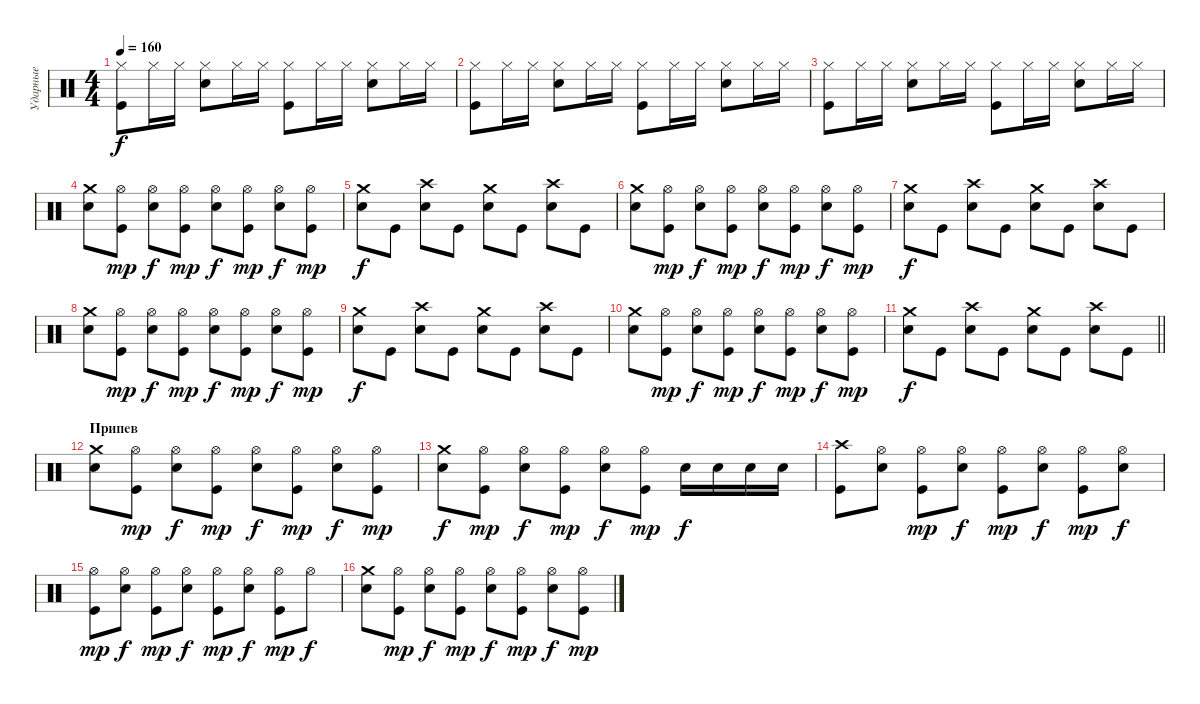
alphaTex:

\track ("Ударные" "Ударные") {instrument percussion}
\staff {score}
\articulation defaults
\ts (4 4)
\tempo 160
\clef neutral
\ks c
("Hi-Hat (closed)" "Kick (hit)").8{dy f} "Hi-Hat (closed)".16 "Hi-Hat (closed)".16 ("Hi-Hat (closed)" "Electric Snare (hit)").8 "Hi-Hat (closed)".16 "Hi-Hat (closed)".16 ("Hi-Hat (closed)" "Kick (hit)").8 "Hi-Hat (closed)".16 "Hi-Hat (closed)".16 ("Hi-Hat (closed)" "Electric Snare (hit)").8 "Hi-Hat (closed)".16 "Hi-Hat (closed)".16 |
("Hi-Hat (closed)" "Kick (hit)").8 "Hi-Hat (closed)".16 "Hi-Hat (closed)".16 ("Hi-Hat (closed)" "Electric Snare (hit)").8 "Hi-Hat (closed)".16 "Hi-Hat (closed)".16 ("Hi-Hat (closed)" "Kick (hit)").8 "Hi-Hat (closed)".16 "Hi-Hat (closed)".16 ("Hi-Hat (closed)" "Electric Snare (hit)").8 "Hi-Hat (closed)".16 "Hi-Hat (closed)".16 |
("Hi-Hat (closed)" "Kick (hit)").8 "Hi-Hat (closed)".16 "Hi-Hat (closed)".16 ("Hi-Hat (closed)" "Electric Snare (hit)").8 "Hi-Hat (closed)".16 "Hi-Hat (closed)".16 ("Hi-Hat (closed)" "Kick (hit)").8 "Hi-Hat (closed)".16 "Hi-Hat (closed)".16 ("Hi-Hat (closed)" "Electric Snare (hit)").8 "Hi-Hat (closed)".16 "Hi-Hat (closed)".16 |
("Crash medium (hit)" "Electric Snare (hit)").8 ("Hi-Hat (open)" "Kick (hit)").8{dy mp} ("Hi-Hat (open)" "Electric Snare (hit)").8{dy f} ("Hi-Hat (open)" "Kick (hit)").8{dy mp} ("Hi-Hat (open)" "Electric Snare (hit)").8{dy f} ("Hi-Hat (open)" "Kick (hit)").8{dy mp} ("Hi-Hat (open)" "Electric Snare (hit)").8{dy f} ("Hi-Hat (open)" "Kick (hit)").8{dy mp} |
("Crash medium (hit)" "Electric Snare (hit)").8{dy f} "Kick (hit)".8 ("Crash high (hit)" "Electric Snare (hit)").8 "Kick (hit)".8 ("Crash medium (hit)" "Electric Snare (hit)").8 "Kick (hit)".8 ("Crash high (hit)" "Electric Snare (hit)").8 "Kick (hit)".8 |
("Crash medium (hit)" "Electric Snare (hit)").8 ("Hi-Hat (open)" "Kick (hit)").8{dy mp} ("Hi-Hat (open)" "Electric Snare (hit)").8{dy f} ("Hi-Hat (open)" "Kick (hit)").8{dy mp} ("Hi-Hat (open)" "Electric Snare (hit)").8{dy f} ("Hi-Hat (open)" "Kick (hit)").8{dy mp} ("Hi-Hat (open)" "Electric Snare (hit)").8{dy f} ("Hi-Hat (open)" "Kick (hit)").8{dy mp} |
("Crash medium (hit)" "Electric Snare (hit)").8{dy f} "Kick (hit)".8 ("Crash high (hit)" "Electric Snare (hit)").8 "Kick (hit)".8 ("Crash medium (hit)" "Electric Snare (hit)").8 "Kick (hit)".8 ("Crash high (hit)" "Electric Snare (hit)").8 "Kick (hit)".8 |
("Crash medium (hit)" "Electric Snare (hit)").8 ("Hi-Hat (open)" "Kick (hit)").8{dy mp} ("Hi-Hat (open)" "Electric Snare (hit)").8{dy f} ("Hi-Hat (open)" "Kick (hit)").8{dy mp} ("Hi-Hat (open)" "Electric Snare (hit)").8{dy f} ("Hi-Hat (open)" "Kick (hit)").8{dy mp} ("Hi-Hat (open)" "Electric Snare (hit)").8{dy f} ("Hi-Hat (open)" "Kick (hit)").8{dy mp} |
("Crash medium (hit)" "Electric Snare (hit)").8{dy f} "Kick (hit)".8 ("Crash high (hit)" "Electric Snare (hit)").8 "Kick (hit)".8 ("Crash medium (hit)" "Electric Snare (hit)").8 "Kick (hit)".8 ("Crash high (hit)" "Electric Snare (hit)").8 "Kick (hit)".8 |
("Crash medium (hit)" "Electric Snare (hit)").8 ("Hi-Hat (open)" "Kick (hit)").8{dy mp} ("Hi-Hat (open)" "Electric Snare (hit)").8{dy f} ("Hi-Hat (open)" "Kick (hit)").8{dy mp} ("Hi-Hat (open)" "Electric Snare (hit)").8{dy f} ("Hi-Hat (open)" "Kick (hit)").8{dy mp} ("Hi-Hat (open)" "Electric Snare (hit)").8{dy f} ("Hi-Hat (open)" "Kick (hit)").8{dy mp} |
\barLineRight lightlight
("Crash medium (hit)" "Electric Snare (hit)").8{dy f} "Kick (hit)".8 ("Crash high (hit)" "Electric Snare (hit)").8 "Kick (hit)".8 ("Crash medium (hit)" "Electric Snare (hit)").8 "Kick (hit)".8 ("Crash high (hit)" "Electric Snare (hit)").8 "Kick (hit)".8 |
\section ("" "Припев")
("Crash medium (hit)" "Electric Snare (hit)").8 ("Hi-Hat (open)" "Kick (hit)").8{dy mp} ("Hi-Hat (open)" "Electric Snare (hit)").8{dy f} ("Hi-Hat (open)" "Kick (hit)").8{dy mp} ("Hi-Hat (open)" "Electric Snare (hit)").8{dy f} ("Hi-Hat (open)" "Kick (hit)").8{dy mp} ("Hi-Hat (open)" "Electric Snare (hit)").8{dy f} ("Hi-Hat (open)" "Kick (hit)").8{dy mp} |
("Crash medium (hit)" "Electric Snare (hit)").8{dy f} ("Hi-Hat (open)" "Kick (hit)").8{dy mp} ("Hi-Hat (open)" "Electric Snare (hit)").8{dy f} ("Hi-Hat (open)" "Kick (hit)").8{dy mp} ("Hi-Hat (open)" "Electric Snare (hit)").8{dy f} ("Hi-Hat (open)" "Kick (hit)").8{dy mp} "Electric Snare (hit)".16{dy f} "Electric Snare (hit)".16 "Electric Snare (hit)".16 "Electric Snare (hit)".16 |
("Crash high (hit)" "Kick (hit)").8 ("Hi-Hat (open)" "Electric Snare (hit)").8 ("Hi-Hat (open)" "Kick (hit)").8{dy mp} ("Hi-Hat (open)" "Electric Snare (hit)").8{dy f} ("Hi-Hat (open)" "Kick (hit)").8{dy mp} ("Hi-Hat (open)" "Electric Snare (hit)").8{dy f} ("Hi-Hat (open)" "Kick (hit)").8{dy mp} ("Hi-Hat (open)" "Electric Snare (hit)").8{dy f} |
("Hi-Hat (open)" "Kick (hit)").8{dy mp} ("Hi-Hat (open)" "Electric Snare (hit)").8{dy f} ("Hi-Hat (open)" "Kick (hit)").8{dy mp} ("Hi-Hat (open)" "Electric Snare (hit)").8{dy f} ("Hi-Hat (open)" "Kick (hit)").8{dy mp} ("Hi-Hat (open)" "Electric Snare (hit)").8{dy f} ("Hi-Hat (open)" "Kick (hit)").8{dy mp} "Hi-Hat (open)".8{dy f} |
("Crash medium (hit)" "Electric Snare (hit)").8 ("Hi-Hat (open)" "Kick (hit)").8{dy mp} ("Hi-Hat (open)" "Electric Snare (hit)").8{dy f} ("Hi-Hat (open)" "Kick (hit)").8{dy mp} ("Hi-Hat (open)" "Electric Snare (hit)").8{dy f} ("Hi-Hat (open)" "Kick (hit)").8{dy mp} ("Hi-Hat (open)" "Electric Snare (hit)").8{dy f} ("Hi-Hat (open)" "Kick (hit)").8{dy mp}
